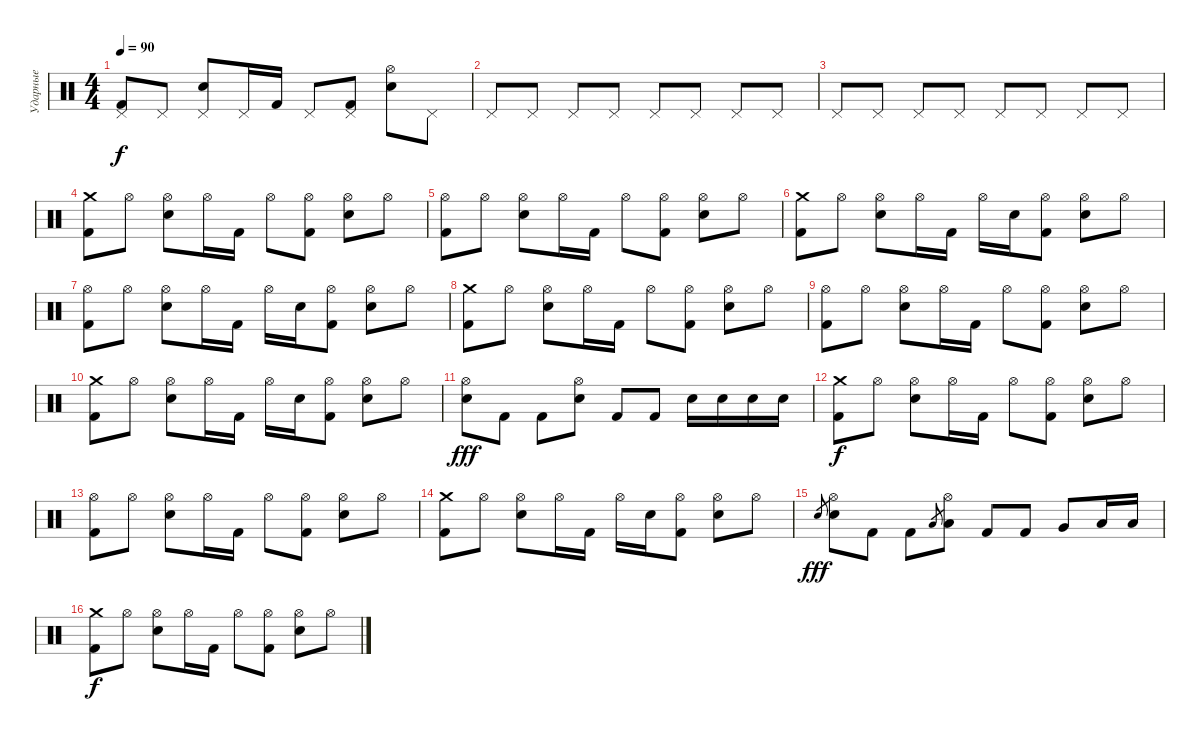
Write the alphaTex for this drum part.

\track ("Ударные" "Ударные") {instrument percussion}
\staff {score}
\articulation defaults
\ts (4 4)
\tempo 90
\clef neutral
\ks c
("Pedal Hi-Hat (hit)" "Kick (hit) 2").8{dy f} "Pedal Hi-Hat (hit)".8 ("Pedal Hi-Hat (hit)" "Snare (hit) 2").8 "Pedal Hi-Hat (hit)".16 "Kick (hit) 2".16 "Pedal Hi-Hat (hit)".8 ("Pedal Hi-Hat (hit)" "Kick (hit) 2").8 ("Hi-Hat (open)" "Snare (hit) 2").8 "Pedal Hi-Hat (hit)".8 |
"Pedal Hi-Hat (hit)".8 "Pedal Hi-Hat (hit)".8 "Pedal Hi-Hat (hit)".8 "Pedal Hi-Hat (hit)".8 "Pedal Hi-Hat (hit)".8 "Pedal Hi-Hat (hit)".8 "Pedal Hi-Hat (hit)".8 "Pedal Hi-Hat (hit)".8 |
"Pedal Hi-Hat (hit)".8 "Pedal Hi-Hat (hit)".8 "Pedal Hi-Hat (hit)".8 "Pedal Hi-Hat (hit)".8 "Pedal Hi-Hat (hit)".8 "Pedal Hi-Hat (hit)".8 "Pedal Hi-Hat (hit)".8 "Pedal Hi-Hat (hit)".8 |
("Crash medium (hit)" "Kick (hit) 2").8 "Hi-Hat (open)".8 ("Hi-Hat (open)" "Snare (hit) 2").8 "Hi-Hat (open)".16 "Kick (hit) 2".16 "Hi-Hat (open)".8 ("Hi-Hat (open)" "Kick (hit) 2").8 ("Hi-Hat (open)" "Snare (hit) 2").8 "Hi-Hat (open)".8 |
("Hi-Hat (open)" "Kick (hit) 2").8 "Hi-Hat (open)".8 ("Hi-Hat (open)" "Snare (hit) 2").8 "Hi-Hat (open)".16 "Kick (hit) 2".16 "Hi-Hat (open)".8 ("Hi-Hat (open)" "Kick (hit) 2").8 ("Hi-Hat (open)" "Snare (hit) 2").8 "Hi-Hat (open)".8 |
("Crash medium (hit)" "Kick (hit) 2").8 "Hi-Hat (open)".8 ("Hi-Hat (open)" "Snare (hit) 2").8 "Hi-Hat (open)".16 "Kick (hit) 2".16 "Hi-Hat (open)".16 "Snare (hit) 2".16 ("Hi-Hat (open)" "Kick (hit) 2").8 ("Hi-Hat (open)" "Snare (hit) 2").8 "Hi-Hat (open)".8 |
("Hi-Hat (open)" "Kick (hit) 2").8 "Hi-Hat (open)".8 ("Hi-Hat (open)" "Snare (hit) 2").8 "Hi-Hat (open)".16 "Kick (hit) 2".16 "Hi-Hat (open)".16 "Snare (hit) 2".16 ("Hi-Hat (open)" "Kick (hit) 2").8 ("Hi-Hat (open)" "Snare (hit) 2").8 "Hi-Hat (open)".8 |
("Crash medium (hit)" "Kick (hit) 2").8 "Hi-Hat (open)".8 ("Hi-Hat (open)" "Snare (hit) 2").8 "Hi-Hat (open)".16 "Kick (hit) 2".16 "Hi-Hat (open)".8 ("Hi-Hat (open)" "Kick (hit) 2").8 ("Hi-Hat (open)" "Snare (hit) 2").8 "Hi-Hat (open)".8 |
("Hi-Hat (open)" "Kick (hit) 2").8 "Hi-Hat (open)".8 ("Hi-Hat (open)" "Snare (hit) 2").8 "Hi-Hat (open)".16 "Kick (hit) 2".16 "Hi-Hat (open)".8 ("Hi-Hat (open)" "Kick (hit) 2").8 ("Hi-Hat (open)" "Snare (hit) 2").8 "Hi-Hat (open)".8 |
("Crash medium (hit)" "Kick (hit) 2").8 "Hi-Hat (open)".8 ("Hi-Hat (open)" "Snare (hit) 2").8 "Hi-Hat (open)".16 "Kick (hit) 2".16 "Hi-Hat (open)".16 "Snare (hit) 2".16 ("Hi-Hat (open)" "Kick (hit) 2").8 ("Hi-Hat (open)" "Snare (hit) 2").8 "Hi-Hat (open)".8 |
("Hi-Hat (open)" "Snare (hit) 2").8{dy fff} "Kick (hit) 2".8 "Kick (hit) 2".8 ("Hi-Hat (open)" "Snare (hit) 2").8 "Kick (hit) 2".8 "Kick (hit) 2".8 "Snare (hit) 2".16 "Snare (hit) 2".16 "Snare (hit) 2".16 "Snare (hit) 2".16 |
("Crash medium (hit)" "Kick (hit) 2").8{dy f} "Hi-Hat (open)".8 ("Hi-Hat (open)" "Snare (hit) 2").8 "Hi-Hat (open)".16 "Kick (hit) 2".16 "Hi-Hat (open)".8 ("Hi-Hat (open)" "Kick (hit) 2").8 ("Hi-Hat (open)" "Snare (hit) 2").8 "Hi-Hat (open)".8 |
("Hi-Hat (open)" "Kick (hit) 2").8 "Hi-Hat (open)".8 ("Hi-Hat (open)" "Snare (hit) 2").8 "Hi-Hat (open)".16 "Kick (hit) 2".16 "Hi-Hat (open)".8 ("Hi-Hat (open)" "Kick (hit) 2").8 ("Hi-Hat (open)" "Snare (hit) 2").8 "Hi-Hat (open)".8 |
("Crash medium (hit)" "Kick (hit) 2").8 "Hi-Hat (open)".8 ("Hi-Hat (open)" "Snare (hit) 2").8 "Hi-Hat (open)".16 "Kick (hit) 2".16 "Hi-Hat (open)".16 "Snare (hit) 2".16 ("Hi-Hat (open)" "Kick (hit) 2").8 ("Hi-Hat (open)" "Snare (hit) 2").8 "Hi-Hat (open)".8 |
"Snare (hit) 2".8{gr dy fff} ("Hi-Hat (open)" "Snare (hit) 2").8 "Kick (hit) 2".8 "Kick (hit) 2".8 "Low Tom (hit)".8{gr} ("Hi-Hat (open)" "Low Tom (hit)").8 "Kick (hit) 2".8 "Kick (hit) 2".8 "Very Low Tom (hit)".8 "Low Floor Tom (hit)".16 "Low Floor Tom (hit)".16 |
("Crash medium (hit)" "Kick (hit) 2").8{dy f} "Hi-Hat (open)".8 ("Hi-Hat (open)" "Snare (hit) 2").8 "Hi-Hat (open)".16 "Kick (hit) 2".16 "Hi-Hat (open)".8 ("Hi-Hat (open)" "Kick (hit) 2").8 ("Hi-Hat (open)" "Snare (hit) 2").8 "Hi-Hat (open)".8
